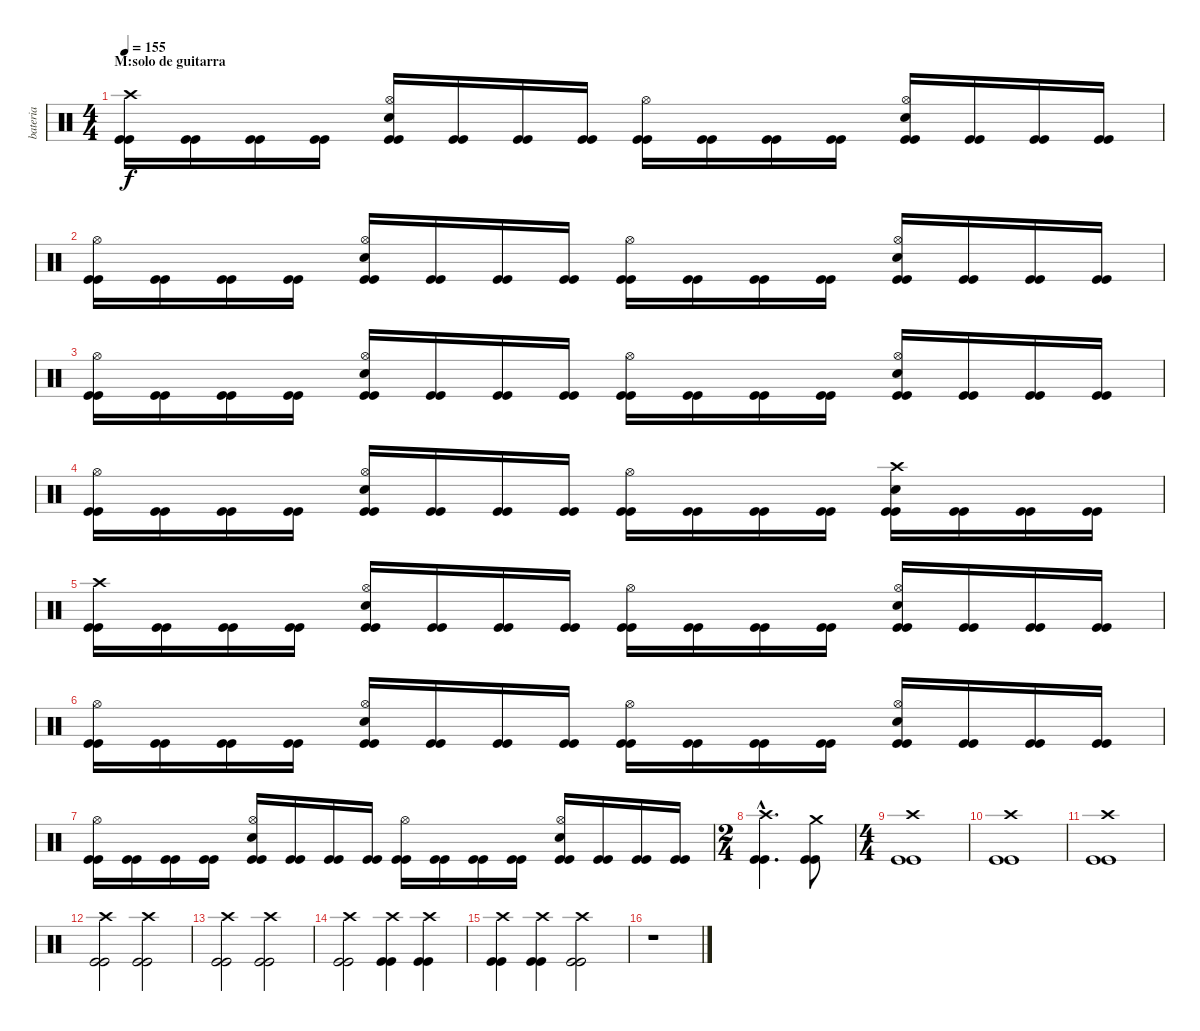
\track ("bateria" "bateria") {instrument percussion}
\staff {score}
\articulation defaults
\ts (4 4)
\section ("" "M:solo de guitarra")
\tempo 155
\clef neutral
\ks c
("Crash high (hit)" "Kick (hit)" "Kick (hit)").16{dy f} ("Kick (hit)" "Kick (hit)").16 ("Kick (hit)" "Kick (hit)").16 ("Kick (hit)" "Kick (hit)").16 ("Hi-Hat (open)" "Snare (hit) 2" "Kick (hit)" "Kick (hit)").16 ("Kick (hit)" "Kick (hit)").16 ("Kick (hit)" "Kick (hit)").16 ("Kick (hit)" "Kick (hit)").16 ("Hi-Hat (open)" "Kick (hit)" "Kick (hit)").16 ("Kick (hit)" "Kick (hit)").16 ("Kick (hit)" "Kick (hit)").16 ("Kick (hit)" "Kick (hit)").16 ("Hi-Hat (open)" "Snare (hit) 2" "Kick (hit)" "Kick (hit)").16 ("Kick (hit)" "Kick (hit)").16 ("Kick (hit)" "Kick (hit)").16 ("Kick (hit)" "Kick (hit)").16 |
("Hi-Hat (open)" "Kick (hit)" "Kick (hit)").16 ("Kick (hit)" "Kick (hit)").16 ("Kick (hit)" "Kick (hit)").16 ("Kick (hit)" "Kick (hit)").16 ("Hi-Hat (open)" "Snare (hit) 2" "Kick (hit)" "Kick (hit)").16 ("Kick (hit)" "Kick (hit)").16 ("Kick (hit)" "Kick (hit)").16 ("Kick (hit)" "Kick (hit)").16 ("Hi-Hat (open)" "Kick (hit)" "Kick (hit)").16 ("Kick (hit)" "Kick (hit)").16 ("Kick (hit)" "Kick (hit)").16 ("Kick (hit)" "Kick (hit)").16 ("Hi-Hat (open)" "Snare (hit) 2" "Kick (hit)" "Kick (hit)").16 ("Kick (hit)" "Kick (hit)").16 ("Kick (hit)" "Kick (hit)").16 ("Kick (hit)" "Kick (hit)").16 |
("Hi-Hat (open)" "Kick (hit)" "Kick (hit)").16 ("Kick (hit)" "Kick (hit)").16 ("Kick (hit)" "Kick (hit)").16 ("Kick (hit)" "Kick (hit)").16 ("Hi-Hat (open)" "Snare (hit) 2" "Kick (hit)" "Kick (hit)").16 ("Kick (hit)" "Kick (hit)").16 ("Kick (hit)" "Kick (hit)").16 ("Kick (hit)" "Kick (hit)").16 ("Hi-Hat (open)" "Kick (hit)" "Kick (hit)").16 ("Kick (hit)" "Kick (hit)").16 ("Kick (hit)" "Kick (hit)").16 ("Kick (hit)" "Kick (hit)").16 ("Hi-Hat (open)" "Snare (hit) 2" "Kick (hit)" "Kick (hit)").16 ("Kick (hit)" "Kick (hit)").16 ("Kick (hit)" "Kick (hit)").16 ("Kick (hit)" "Kick (hit)").16 |
("Hi-Hat (open)" "Kick (hit)" "Kick (hit)").16 ("Kick (hit)" "Kick (hit)").16 ("Kick (hit)" "Kick (hit)").16 ("Kick (hit)" "Kick (hit)").16 ("Hi-Hat (open)" "Snare (hit) 2" "Kick (hit)" "Kick (hit)").16 ("Kick (hit)" "Kick (hit)").16 ("Kick (hit)" "Kick (hit)").16 ("Kick (hit)" "Kick (hit)").16 ("Hi-Hat (open)" "Kick (hit)" "Kick (hit)").16 ("Kick (hit)" "Kick (hit)").16 ("Kick (hit)" "Kick (hit)").16 ("Kick (hit)" "Kick (hit)").16 ("Crash high (hit)" "Snare (hit) 2" "Kick (hit)" "Kick (hit)").16 ("Kick (hit)" "Kick (hit)").16 ("Kick (hit)" "Kick (hit)").16 ("Kick (hit)" "Kick (hit)").16 |
("Crash high (hit)" "Kick (hit)" "Kick (hit)").16 ("Kick (hit)" "Kick (hit)").16 ("Kick (hit)" "Kick (hit)").16 ("Kick (hit)" "Kick (hit)").16 ("Hi-Hat (open)" "Snare (hit) 2" "Kick (hit)" "Kick (hit)").16 ("Kick (hit)" "Kick (hit)").16 ("Kick (hit)" "Kick (hit)").16 ("Kick (hit)" "Kick (hit)").16 ("Hi-Hat (open)" "Kick (hit)" "Kick (hit)").16 ("Kick (hit)" "Kick (hit)").16 ("Kick (hit)" "Kick (hit)").16 ("Kick (hit)" "Kick (hit)").16 ("Hi-Hat (open)" "Snare (hit) 2" "Kick (hit)" "Kick (hit)").16 ("Kick (hit)" "Kick (hit)").16 ("Kick (hit)" "Kick (hit)").16 ("Kick (hit)" "Kick (hit)").16 |
("Hi-Hat (open)" "Kick (hit)" "Kick (hit)").16 ("Kick (hit)" "Kick (hit)").16 ("Kick (hit)" "Kick (hit)").16 ("Kick (hit)" "Kick (hit)").16 ("Hi-Hat (open)" "Snare (hit) 2" "Kick (hit)" "Kick (hit)").16 ("Kick (hit)" "Kick (hit)").16 ("Kick (hit)" "Kick (hit)").16 ("Kick (hit)" "Kick (hit)").16 ("Hi-Hat (open)" "Kick (hit)" "Kick (hit)").16 ("Kick (hit)" "Kick (hit)").16 ("Kick (hit)" "Kick (hit)").16 ("Kick (hit)" "Kick (hit)").16 ("Hi-Hat (open)" "Snare (hit) 2" "Kick (hit)" "Kick (hit)").16 ("Kick (hit)" "Kick (hit)").16 ("Kick (hit)" "Kick (hit)").16 ("Kick (hit)" "Kick (hit)").16 |
("Hi-Hat (open)" "Kick (hit)" "Kick (hit)").16 ("Kick (hit)" "Kick (hit)").16 ("Kick (hit)" "Kick (hit)").16 ("Kick (hit)" "Kick (hit)").16 ("Hi-Hat (open)" "Snare (hit) 2" "Kick (hit)" "Kick (hit)").16 ("Kick (hit)" "Kick (hit)").16 ("Kick (hit)" "Kick (hit)").16 ("Kick (hit)" "Kick (hit)").16 ("Hi-Hat (open)" "Kick (hit)" "Kick (hit)").16 ("Kick (hit)" "Kick (hit)").16 ("Kick (hit)" "Kick (hit)").16 ("Kick (hit)" "Kick (hit)").16 ("Hi-Hat (open)" "Snare (hit) 2" "Kick (hit)" "Kick (hit)").16 ("Kick (hit)" "Kick (hit)").16 ("Kick (hit)" "Kick (hit)").16 ("Kick (hit)" "Kick (hit)").16 |
\ts (2 4)
("Crash high (hit)"{hac} "Kick (hit)"{hac} "Kick (hit)"{hac}).4{d} ("Crash medium (hit)" "Kick (hit)" "Kick (hit)").8 |
\ts (4 4)
("Crash high (hit)" "Kick (hit)" "Kick (hit)").1 |
("Crash high (hit)" "Kick (hit)" "Kick (hit)").1 |
("Crash high (hit)" "Kick (hit)" "Kick (hit)").1 |
("Crash high (hit)" "Kick (hit)" "Kick (hit)").2 ("Crash high (hit)" "Kick (hit)" "Kick (hit)").2 |
("Crash high (hit)" "Kick (hit)" "Kick (hit)").2 ("Crash high (hit)" "Kick (hit)" "Kick (hit)").2 |
("Crash high (hit)" "Kick (hit)" "Kick (hit)").2 ("Crash high (hit)" "Kick (hit)" "Kick (hit)").4 ("Crash high (hit)" "Kick (hit)" "Kick (hit)").4 |
("Crash high (hit)" "Kick (hit)" "Kick (hit)").4 ("Crash high (hit)" "Kick (hit)" "Kick (hit)").4 ("Crash high (hit)" "Kick (hit)" "Kick (hit)").2 |
r.1
